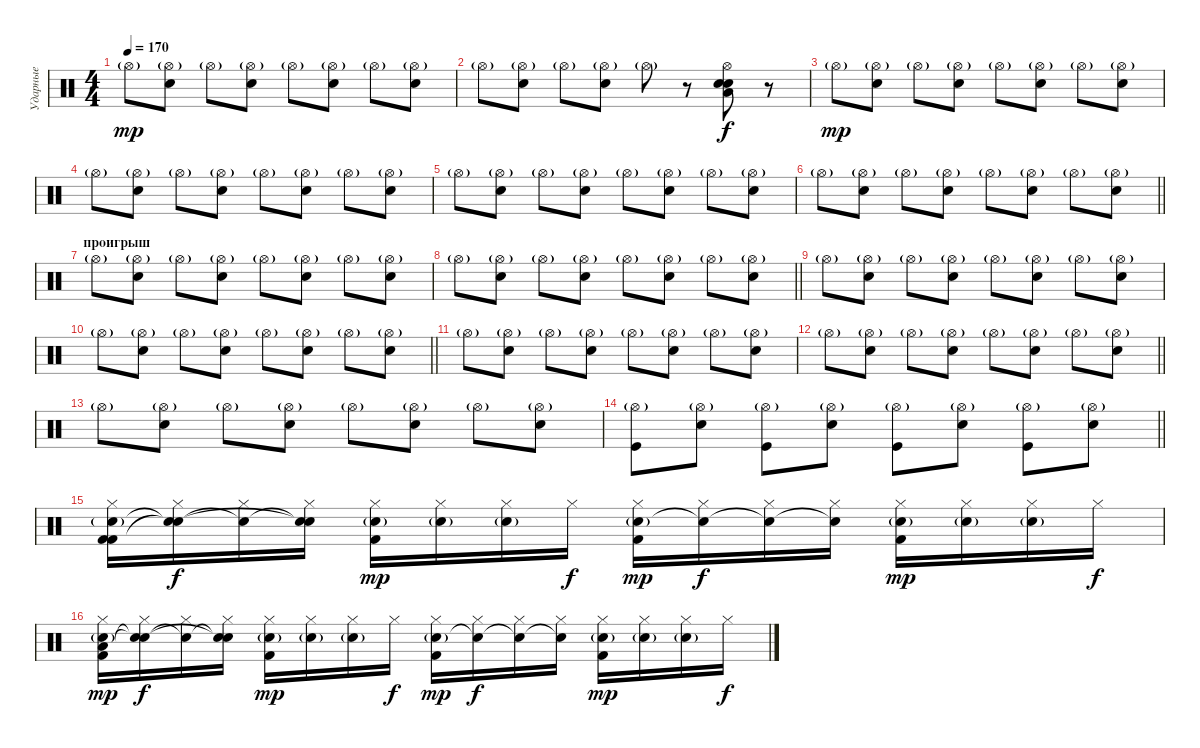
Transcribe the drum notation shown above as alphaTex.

\track ("Ударные" "Ударные") {instrument percussion}
\staff {score}
\articulation defaults
\ts (4 4)
\tempo 170
\clef neutral
\ks c "Hi-Hat (open)"{g}.8{dy mp}
("Hi-Hat (open)"{g} "Snare (hit) 2").8 "Hi-Hat (open)"{g}.8 ("Hi-Hat (open)"{g} "Snare (hit) 2").8 "Hi-Hat (open)"{g}.8 ("Hi-Hat (open)"{g} "Snare (hit) 2").8 "Hi-Hat (open)"{g}.8 ("Hi-Hat (open)"{g} "Snare (hit) 2").8 |
"Hi-Hat (open)"{g}.8 ("Hi-Hat (open)"{g} "Snare (hit) 2").8 "Hi-Hat (open)"{g}.8 ("Hi-Hat (open)"{g} "Snare (hit) 2").8 "Hi-Hat (open)"{g}.8 r.8 ("Snare (hit) 2" "Snare (hit) 2" "Low Tom (hit)" "Hi-Hat (open)").8{dy f} r.8 |
"Hi-Hat (open)"{g}.8{dy mp} ("Hi-Hat (open)"{g} "Snare (hit) 2").8 "Hi-Hat (open)"{g}.8 ("Hi-Hat (open)"{g} "Snare (hit) 2").8 "Hi-Hat (open)"{g}.8 ("Hi-Hat (open)"{g} "Snare (hit) 2").8 "Hi-Hat (open)"{g}.8 ("Hi-Hat (open)"{g} "Snare (hit) 2").8 |
"Hi-Hat (open)"{g}.8 ("Hi-Hat (open)"{g} "Snare (hit) 2").8 "Hi-Hat (open)"{g}.8 ("Hi-Hat (open)"{g} "Snare (hit) 2").8 "Hi-Hat (open)"{g}.8 ("Hi-Hat (open)"{g} "Snare (hit) 2").8 "Hi-Hat (open)"{g}.8 ("Hi-Hat (open)"{g} "Snare (hit) 2").8 |
"Hi-Hat (open)"{g}.8 ("Hi-Hat (open)"{g} "Snare (hit) 2").8 "Hi-Hat (open)"{g}.8 ("Hi-Hat (open)"{g} "Snare (hit) 2").8 "Hi-Hat (open)"{g}.8 ("Hi-Hat (open)"{g} "Snare (hit) 2").8 "Hi-Hat (open)"{g}.8 ("Hi-Hat (open)"{g} "Snare (hit) 2").8 |
\barLineRight lightlight "Hi-Hat (open)"{g}.8
("Hi-Hat (open)"{g} "Snare (hit) 2").8 "Hi-Hat (open)"{g}.8 ("Hi-Hat (open)"{g} "Snare (hit) 2").8 "Hi-Hat (open)"{g}.8 ("Hi-Hat (open)"{g} "Snare (hit) 2").8 "Hi-Hat (open)"{g}.8 ("Hi-Hat (open)"{g} "Snare (hit) 2").8 |
\section ("" "проигрыш")
"Hi-Hat (open)"{g}.8 ("Hi-Hat (open)"{g} "Snare (hit) 2").8 "Hi-Hat (open)"{g}.8 ("Hi-Hat (open)"{g} "Snare (hit) 2").8 "Hi-Hat (open)"{g}.8 ("Hi-Hat (open)"{g} "Snare (hit) 2").8 "Hi-Hat (open)"{g}.8 ("Hi-Hat (open)"{g} "Snare (hit) 2").8 |
\barLineRight lightlight "Hi-Hat (open)"{g}.8
("Hi-Hat (open)"{g} "Snare (hit) 2").8 "Hi-Hat (open)"{g}.8 ("Hi-Hat (open)"{g} "Snare (hit) 2").8 "Hi-Hat (open)"{g}.8 ("Hi-Hat (open)"{g} "Snare (hit) 2").8 "Hi-Hat (open)"{g}.8 ("Hi-Hat (open)"{g} "Snare (hit) 2").8 |
"Hi-Hat (open)"{g}.8 ("Hi-Hat (open)"{g} "Snare (hit) 2").8 "Hi-Hat (open)"{g}.8 ("Hi-Hat (open)"{g} "Snare (hit) 2").8 "Hi-Hat (open)"{g}.8 ("Hi-Hat (open)"{g} "Snare (hit) 2").8 "Hi-Hat (open)"{g}.8 ("Hi-Hat (open)"{g} "Snare (hit) 2").8 |
\barLineRight lightlight "Hi-Hat (open)"{g}.8
("Hi-Hat (open)"{g} "Snare (hit) 2").8 "Hi-Hat (open)"{g}.8 ("Hi-Hat (open)"{g} "Snare (hit) 2").8 "Hi-Hat (open)"{g}.8 ("Hi-Hat (open)"{g} "Snare (hit) 2").8 "Hi-Hat (open)"{g}.8 ("Hi-Hat (open)"{g} "Snare (hit) 2").8 |
"Hi-Hat (open)"{g}.8 ("Hi-Hat (open)"{g} "Snare (hit) 2").8 "Hi-Hat (open)"{g}.8 ("Hi-Hat (open)"{g} "Snare (hit) 2").8 "Hi-Hat (open)"{g}.8 ("Hi-Hat (open)"{g} "Snare (hit) 2").8 "Hi-Hat (open)"{g}.8 ("Hi-Hat (open)"{g} "Snare (hit) 2").8 |
\barLineRight lightlight "Hi-Hat (open)"{g}.8
("Hi-Hat (open)"{g} "Snare (hit) 2").8 "Hi-Hat (open)"{g}.8 ("Hi-Hat (open)"{g} "Snare (hit) 2").8 "Hi-Hat (open)"{g}.8 ("Hi-Hat (open)"{g} "Snare (hit) 2").8 "Hi-Hat (open)"{g}.8 ("Hi-Hat (open)"{g} "Snare (hit) 2").8 |
"Hi-Hat (open)"{g}.8 ("Hi-Hat (open)"{g} "Snare (hit) 2").8 "Hi-Hat (open)"{g}.8 ("Hi-Hat (open)"{g} "Snare (hit) 2").8 "Hi-Hat (open)"{g}.8 ("Hi-Hat (open)"{g} "Snare (hit) 2").8 "Hi-Hat (open)"{g}.8 ("Hi-Hat (open)"{g} "Snare (hit) 2").8 |
\barLineRight lightlight
("Hi-Hat (open)"{g} "Kick (hit)").8 ("Hi-Hat (open)"{g} "Snare (hit) 2").8 ("Hi-Hat (open)"{g} "Kick (hit)").8 ("Hi-Hat (open)"{g} "Snare (hit) 2").8 ("Hi-Hat (open)"{g} "Kick (hit)").8 ("Hi-Hat (open)"{g} "Snare (hit) 2").8 ("Hi-Hat (open)"{g} "Kick (hit)").8 ("Hi-Hat (open)"{g} "Snare (hit) 2").8 |
("Hi-Hat (closed)" "Kick (hit) 2" "Snare (hit) 2"{g} "Kick (hit) 2").16 ("Hi-Hat (closed)" "Snare (hit)"{t} "Snare (hit)"{t}).16{dy f} ("Hi-Hat (closed)" "Snare (hit)"{t}).16 ("Hi-Hat (closed)" "Snare (hit) 2"{t} "Snare (hit)"{t}).16 ("Hi-Hat (closed)" "Snare (hit) 2"{g} "Kick (hit) 2").16{dy mp} ("Hi-Hat (closed)" "Snare (hit) 2"{g}).16 ("Hi-Hat (closed)" "Snare (hit) 2"{g}).16 "Hi-Hat (closed)".16{dy f} ("Hi-Hat (closed)" "Snare (hit) 2"{g} "Kick (hit) 2").16{dy mp} ("Hi-Hat (closed)" "Snare (hit) 2"{t}).16{dy f} ("Hi-Hat (closed)" "Snare (hit) 2"{t}).16 ("Hi-Hat (closed)" "Snare (hit) 2"{t}).16 ("Hi-Hat (closed)" "Snare (hit) 2"{g} "Kick (hit) 2").16{dy mp} ("Hi-Hat (closed)" "Snare (hit) 2"{g}).16 ("Hi-Hat (closed)" "Snare (hit) 2"{g}).16 "Hi-Hat (closed)".16{dy f} |
("Hi-Hat (closed)" "Low Tom (hit)" "Snare (hit) 2"{g} "Kick (hit) 2").16{dy mp} ("Hi-Hat (closed)" "Snare (hit)"{t} "Snare (hit)"{t}).16{dy f} ("Hi-Hat (closed)" "Snare (hit)"{t}).16 ("Hi-Hat (closed)" "Snare (hit) 2"{t} "Snare (hit)"{t}).16 ("Hi-Hat (closed)" "Snare (hit) 2"{g} "Kick (hit) 2").16{dy mp} ("Hi-Hat (closed)" "Snare (hit) 2"{g}).16 ("Hi-Hat (closed)" "Snare (hit) 2"{g}).16 "Hi-Hat (closed)".16{dy f} ("Hi-Hat (closed)" "Snare (hit) 2"{g} "Kick (hit) 2").16{dy mp} ("Hi-Hat (closed)" "Snare (hit) 2"{t}).16{dy f} ("Hi-Hat (closed)" "Snare (hit) 2"{t}).16 ("Hi-Hat (closed)" "Snare (hit) 2"{t}).16 ("Hi-Hat (closed)" "Snare (hit) 2"{g} "Kick (hit) 2").16{dy mp} ("Hi-Hat (closed)" "Snare (hit) 2"{g}).16 ("Hi-Hat (closed)" "Snare (hit) 2"{g}).16 "Hi-Hat (closed)".16{dy f}
